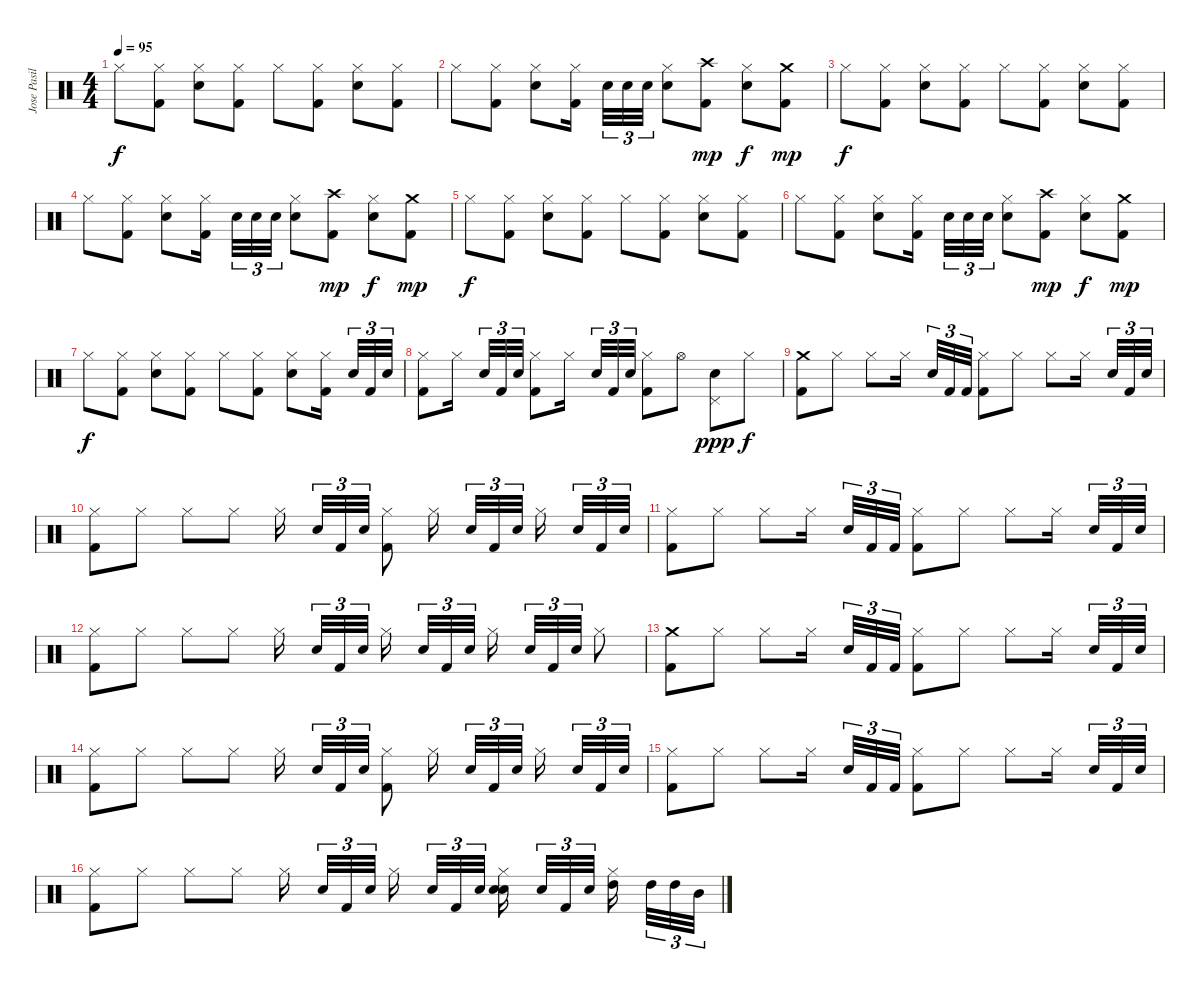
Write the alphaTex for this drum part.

\track ("Jose Pasillas II - Drums" "Jose Pasil") {instrument percussion}
\staff {score}
\articulation defaults
\ts (4 4)
\tempo 95
\clef neutral
\ks aminor "Hi-Hat (closed)".8{dy f}
("Hi-Hat (closed)" "Kick (hit) 2").8 ("Hi-Hat (closed)" "Electric Snare (hit)").8 ("Hi-Hat (closed)" "Kick (hit) 2").8 "Hi-Hat (closed)".8 ("Hi-Hat (closed)" "Kick (hit) 2").8 ("Hi-Hat (closed)" "Electric Snare (hit)").8 ("Hi-Hat (closed)" "Kick (hit) 2").8 |
"Hi-Hat (closed)".8 ("Hi-Hat (closed)" "Kick (hit) 2").8 ("Hi-Hat (closed)" "Electric Snare (hit)").8 ("Hi-Hat (closed)" "Kick (hit) 2").16 "Snare (hit)"{x}.32{tu (3 2)} "Electric Snare (hit)".32{tu (3 2)} "Electric Snare (hit)"{x}.32{tu (3 2)} ("Hi-Hat (closed)" "Electric Snare (hit)").8 ("Crash high (hit)" "Kick (hit) 2").8{dy mp} ("Hi-Hat (closed)" "Electric Snare (hit)").8{dy f} ("Crash medium (hit)" "Kick (hit) 2").8{dy mp} |
"Hi-Hat (closed)".8{dy f} ("Hi-Hat (closed)" "Kick (hit) 2").8 ("Hi-Hat (closed)" "Electric Snare (hit)").8 ("Hi-Hat (closed)" "Kick (hit) 2").8 "Hi-Hat (closed)".8 ("Hi-Hat (closed)" "Kick (hit) 2").8 ("Hi-Hat (closed)" "Electric Snare (hit)").8 ("Hi-Hat (closed)" "Kick (hit) 2").8 |
"Hi-Hat (closed)".8 ("Hi-Hat (closed)" "Kick (hit) 2").8 ("Hi-Hat (closed)" "Electric Snare (hit)").8 ("Hi-Hat (closed)" "Kick (hit) 2").16 "Snare (hit)"{x}.32{tu (3 2)} "Electric Snare (hit)".32{tu (3 2)} "Electric Snare (hit)"{x}.32{tu (3 2)} ("Hi-Hat (closed)" "Electric Snare (hit)").8 ("Crash high (hit)" "Kick (hit) 2").8{dy mp} ("Hi-Hat (closed)" "Electric Snare (hit)").8{dy f} ("Crash medium (hit)" "Kick (hit) 2").8{dy mp} |
"Hi-Hat (closed)".8{dy f} ("Hi-Hat (closed)" "Kick (hit) 2").8 ("Hi-Hat (closed)" "Electric Snare (hit)").8 ("Hi-Hat (closed)" "Kick (hit) 2").8 "Hi-Hat (closed)".8 ("Hi-Hat (closed)" "Kick (hit) 2").8 ("Hi-Hat (closed)" "Electric Snare (hit)").8 ("Hi-Hat (closed)" "Kick (hit) 2").8 |
"Hi-Hat (closed)".8 ("Hi-Hat (closed)" "Kick (hit) 2").8 ("Hi-Hat (closed)" "Electric Snare (hit)").8 ("Hi-Hat (closed)" "Kick (hit) 2").16 "Snare (hit)"{x}.32{tu (3 2)} "Electric Snare (hit)".32{tu (3 2)} "Electric Snare (hit)"{x}.32{tu (3 2)} ("Hi-Hat (closed)" "Electric Snare (hit)").8 ("Crash high (hit)" "Kick (hit) 2").8{dy mp} ("Hi-Hat (closed)" "Electric Snare (hit)").8{dy f} ("Crash medium (hit)" "Kick (hit) 2").8{dy mp} |
"Hi-Hat (closed)".8{dy f} ("Hi-Hat (closed)" "Kick (hit) 2").8 ("Hi-Hat (closed)" "Electric Snare (hit)").8 ("Hi-Hat (closed)" "Kick (hit) 2").8 "Hi-Hat (closed)".8 ("Hi-Hat (closed)" "Kick (hit) 2").8 ("Hi-Hat (closed)" "Electric Snare (hit)").8 ("Hi-Hat (closed)" "Kick (hit) 2").16 "Snare (hit)"{x}.32{tu (3 2)} "Kick (hit) 2".32{tu (3 2)} "Snare (hit)"{x}.32{tu (3 2)} |
("Hi-Hat (closed)" "Kick (hit) 2").8 "Hi-Hat (closed)".16 "Snare (hit)"{x}.32{tu (3 2)} "Kick (hit) 2".32{tu (3 2)} "Snare (hit)"{x}.32{tu (3 2)} ("Hi-Hat (closed)" "Kick (hit) 2").8 "Hi-Hat (closed)".16 "Snare (hit)"{x}.32{tu (3 2)} "Kick (hit) 2".32{tu (3 2)} "Snare (hit)"{x}.32{tu (3 2)} ("Hi-Hat (closed)" "Kick (hit) 2").8 "Hi-Hat (open)".8 ("Pedal Hi-Hat (hit)" "Electric Snare (hit)").8{dy ppp} "Hi-Hat (closed)".8{dy f} |
("Crash medium (hit)" "Kick (hit) 2").8 "Hi-Hat (closed)".8 "Hi-Hat (closed)".8 "Hi-Hat (closed)".16 "Snare (hit)"{x}.32{tu (3 2)} "Kick (hit) 2".32{tu (3 2)} "Kick (hit) 2"{x}.32{tu (3 2)} ("Hi-Hat (closed)" "Kick (hit) 2").8 "Hi-Hat (closed)".8 "Hi-Hat (closed)".8 "Hi-Hat (closed)".16 "Snare (hit)"{x}.32{tu (3 2)} "Kick (hit) 2".32{tu (3 2)} "Snare (hit)"{x}.32{tu (3 2)} |
("Hi-Hat (closed)" "Kick (hit) 2").8 "Hi-Hat (closed)".8 "Hi-Hat (closed)".8 "Hi-Hat (closed)".8 "Hi-Hat (closed)".16 "Snare (hit)"{x}.32{tu (3 2)} "Kick (hit) 2".32{tu (3 2)} "Snare (hit)"{x}.32{tu (3 2)} ("Hi-Hat (closed)" "Kick (hit) 2").8 "Hi-Hat (closed)".16 "Snare (hit)"{x}.32{tu (3 2)} "Kick (hit) 2".32{tu (3 2)} "Snare (hit)"{x}.32{tu (3 2)} "Hi-Hat (closed)".16 "Snare (hit)"{x}.32{tu (3 2)} "Kick (hit) 2".32{tu (3 2)} "Snare (hit)"{x}.32{tu (3 2)} |
("Hi-Hat (closed)" "Kick (hit) 2").8 "Hi-Hat (closed)".8 "Hi-Hat (closed)".8 "Hi-Hat (closed)".16 "Snare (hit)"{x}.32{tu (3 2)} "Kick (hit) 2".32{tu (3 2)} "Kick (hit) 2"{x}.32{tu (3 2)} ("Hi-Hat (closed)" "Kick (hit) 2").8 "Hi-Hat (closed)".8 "Hi-Hat (closed)".8 "Hi-Hat (closed)".16 "Snare (hit)"{x}.32{tu (3 2)} "Kick (hit) 2".32{tu (3 2)} "Snare (hit)"{x}.32{tu (3 2)} |
("Hi-Hat (closed)" "Kick (hit) 2").8 "Hi-Hat (closed)".8 "Hi-Hat (closed)".8 "Hi-Hat (closed)".8 "Hi-Hat (closed)".16 "Snare (hit)"{x}.32{tu (3 2)} "Kick (hit) 2".32{tu (3 2)} "Snare (hit)"{x}.32{tu (3 2)} "Hi-Hat (closed)".16 "Snare (hit)"{x}.32{tu (3 2)} "Kick (hit) 2".32{tu (3 2)} "Snare (hit)"{x}.32{tu (3 2)} "Hi-Hat (closed)".16 "Snare (hit)"{x}.32{tu (3 2)} "Kick (hit) 2".32{tu (3 2)} "Snare (hit)"{x}.32{tu (3 2)} "Hi-Hat (closed)".8 |
("Crash medium (hit)" "Kick (hit) 2").8 "Hi-Hat (closed)".8 "Hi-Hat (closed)".8 "Hi-Hat (closed)".16 "Snare (hit)"{x}.32{tu (3 2)} "Kick (hit) 2".32{tu (3 2)} "Kick (hit) 2"{x}.32{tu (3 2)} ("Hi-Hat (closed)" "Kick (hit) 2").8 "Hi-Hat (closed)".8 "Hi-Hat (closed)".8 "Hi-Hat (closed)".16 "Snare (hit)"{x}.32{tu (3 2)} "Kick (hit) 2".32{tu (3 2)} "Snare (hit)"{x}.32{tu (3 2)} |
("Hi-Hat (closed)" "Kick (hit) 2").8 "Hi-Hat (closed)".8 "Hi-Hat (closed)".8 "Hi-Hat (closed)".8 "Hi-Hat (closed)".16 "Snare (hit)"{x}.32{tu (3 2)} "Kick (hit) 2".32{tu (3 2)} "Snare (hit)"{x}.32{tu (3 2)} ("Hi-Hat (closed)" "Kick (hit) 2").8 "Hi-Hat (closed)".16 "Snare (hit)"{x}.32{tu (3 2)} "Kick (hit) 2".32{tu (3 2)} "Snare (hit)"{x}.32{tu (3 2)} "Hi-Hat (closed)".16 "Snare (hit)"{x}.32{tu (3 2)} "Kick (hit) 2".32{tu (3 2)} "Snare (hit)"{x}.32{tu (3 2)} |
("Hi-Hat (closed)" "Kick (hit) 2").8 "Hi-Hat (closed)".8 "Hi-Hat (closed)".8 "Hi-Hat (closed)".16 "Snare (hit)"{x}.32{tu (3 2)} "Kick (hit) 2".32{tu (3 2)} "Kick (hit) 2"{x}.32{tu (3 2)} ("Hi-Hat (closed)" "Kick (hit) 2").8 "Hi-Hat (closed)".8 "Hi-Hat (closed)".8 "Hi-Hat (closed)".16 "Snare (hit)"{x}.32{tu (3 2)} "Kick (hit) 2".32{tu (3 2)} "Snare (hit)"{x}.32{tu (3 2)} |
("Hi-Hat (closed)" "Kick (hit) 2").8 "Hi-Hat (closed)".8 "Hi-Hat (closed)".8 "Hi-Hat (closed)".8 "Hi-Hat (closed)".16 "Snare (hit)"{x}.32{tu (3 2)} "Kick (hit) 2".32{tu (3 2)} "Snare (hit)"{x}.32{tu (3 2)} "Hi-Hat (closed)".16 "Snare (hit)"{x}.32{tu (3 2)} "Kick (hit) 2".32{tu (3 2)} "Snare (hit)"{x}.32{tu (3 2)} ("Hi-Hat (closed)" "Electric Snare (hit)" "Electric Snare (hit)").16{bd 120} "Snare (hit)"{x}.32{tu (3 2)} "Kick (hit) 2".32{tu (3 2)} "Snare (hit)"{x}.32{tu (3 2)} ("Hi-Hat (closed)" "High Tom (hit)").16 "High Tom (hit)"{x}.32{tu (3 2)} "High Tom (hit)".32{tu (3 2)} "Mid Tom (hit)"{x}.32{tu (3 2)}
